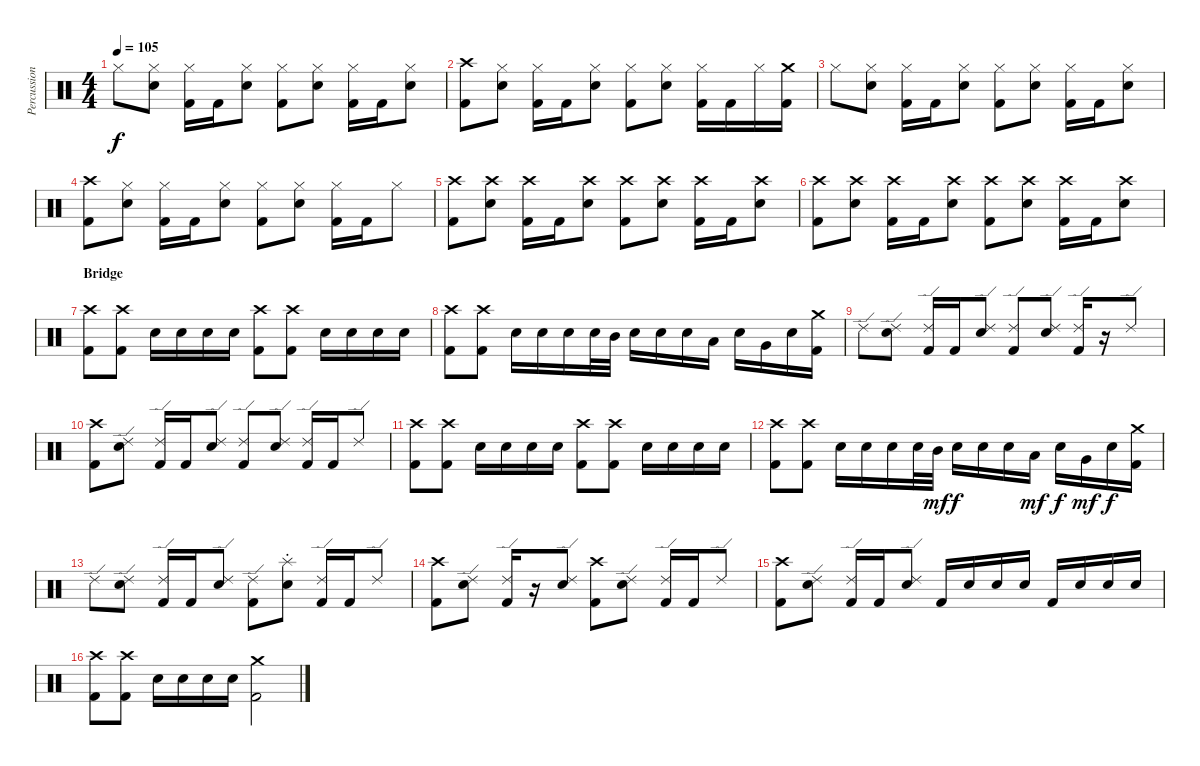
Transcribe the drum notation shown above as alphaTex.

\track ("Percussion" "Percussion") {instrument percussion}
\staff {score}
\articulation defaults
\ts (4 4)
\tempo 105
\clef neutral
\ks c "Hi-Hat (closed)".8{dy f}
("Hi-Hat (closed)" "Electric Snare (hit)").8 ("Hi-Hat (closed)" "Kick (hit) 2").16 "Kick (hit) 2".16 ("Hi-Hat (closed)" "Electric Snare (hit)").8 ("Hi-Hat (closed)" "Kick (hit) 2").8 ("Hi-Hat (closed)" "Electric Snare (hit)").8 ("Hi-Hat (closed)" "Kick (hit) 2").16 "Kick (hit) 2".16 ("Hi-Hat (closed)" "Electric Snare (hit)").8 |
("Crash high (hit)" "Kick (hit) 2").8 ("Hi-Hat (closed)" "Electric Snare (hit)").8 ("Hi-Hat (closed)" "Kick (hit) 2").16 "Kick (hit) 2".16 ("Hi-Hat (closed)" "Electric Snare (hit)").8 ("Hi-Hat (closed)" "Kick (hit) 2").8 ("Hi-Hat (closed)" "Electric Snare (hit)").8 ("Hi-Hat (closed)" "Kick (hit) 2").16 "Kick (hit) 2".16 "Hi-Hat (closed)".16 ("Crash medium (hit)" "Kick (hit) 2").16 |
"Hi-Hat (closed)".8 ("Hi-Hat (closed)" "Electric Snare (hit)").8 ("Hi-Hat (closed)" "Kick (hit) 2").16 "Kick (hit) 2".16 ("Hi-Hat (closed)" "Electric Snare (hit)").8 ("Hi-Hat (closed)" "Kick (hit) 2").8 ("Hi-Hat (closed)" "Electric Snare (hit)").8 ("Hi-Hat (closed)" "Kick (hit) 2").16 "Kick (hit) 2".16 ("Hi-Hat (closed)" "Electric Snare (hit)").8 |
("Crash high (hit)" "Kick (hit) 2").8 ("Hi-Hat (closed)" "Electric Snare (hit)").8 ("Hi-Hat (closed)" "Kick (hit) 2").16 "Kick (hit) 2".16 ("Hi-Hat (closed)" "Electric Snare (hit)").8 ("Hi-Hat (closed)" "Kick (hit) 2").8 ("Hi-Hat (closed)" "Electric Snare (hit)").8 ("Hi-Hat (closed)" "Kick (hit) 2").16 "Kick (hit) 2".16 "Hi-Hat (closed)".8 |
("Crash high (hit)" "Kick (hit) 2").8 ("Crash high (hit)" "Electric Snare (hit)").8 ("Crash high (hit)" "Kick (hit) 2").16 "Kick (hit) 2".16 ("Crash high (hit)" "Electric Snare (hit)").8 ("Crash high (hit)" "Kick (hit) 2").8 ("Crash high (hit)" "Electric Snare (hit)").8 ("Crash high (hit)" "Kick (hit) 2").16 "Kick (hit) 2".16 ("Crash high (hit)" "Electric Snare (hit)").8 |
("Crash high (hit)" "Kick (hit) 2").8 ("Crash high (hit)" "Electric Snare (hit)").8 ("Crash high (hit)" "Kick (hit) 2").16 "Kick (hit) 2".16 ("Crash high (hit)" "Electric Snare (hit)").8 ("Crash high (hit)" "Kick (hit) 2").8 ("Crash high (hit)" "Electric Snare (hit)").8 ("Crash high (hit)" "Kick (hit) 2").16 "Kick (hit) 2".16 ("Crash high (hit)" "Electric Snare (hit)").8 |
\section ("" "Bridge")
("Crash high (hit)" "Kick (hit) 2").8 ("Crash high (hit)" "Kick (hit) 2").8 "Electric Snare (hit)".16 "Electric Snare (hit)".16 "Electric Snare (hit)".16 "Electric Snare (hit)".16 ("Crash high (hit)" "Kick (hit) 2").8 ("Crash high (hit)" "Kick (hit) 2").8 "Electric Snare (hit)".16 "Electric Snare (hit)".16 "Electric Snare (hit)".16 "Electric Snare (hit)".16 |
("Crash high (hit)" "Kick (hit) 2").8 ("Crash high (hit)" "Kick (hit) 2").8 "Electric Snare (hit)".16 "Electric Snare (hit)".16 "Electric Snare (hit)".16 "Electric Snare (hit)".32 "Mid Tom (hit)".32 "Electric Snare (hit)".16 "Electric Snare (hit)".16 "Electric Snare (hit)".16 "Low Tom (hit)".16 "Electric Snare (hit)".16 "Very Low Tom (hit)".16 "Electric Snare (hit)".16 ("Crash medium (hit)" "Kick (hit) 2").16 |
"Ride (edge) 2".8 ("Ride (edge) 2" "Electric Snare (hit)").8 ("Ride (edge) 2" "Kick (hit) 2").16 "Kick (hit) 2".16 ("Ride (edge) 2" "Electric Snare (hit)").8 ("Ride (edge) 2" "Kick (hit) 2").8 ("Ride (edge) 2" "Electric Snare (hit)").8 ("Ride (edge) 2" "Kick (hit) 2").16 r.16 "Ride (edge) 2".8 |
("Crash high (hit)" "Kick (hit) 2").8 ("Ride (edge) 2" "Electric Snare (hit)").8 ("Ride (edge) 2" "Kick (hit) 2").16 "Kick (hit) 2".16 ("Ride (edge) 2" "Electric Snare (hit)").8 ("Ride (edge) 2" "Kick (hit) 2").8 ("Ride (edge) 2" "Electric Snare (hit)").8 ("Ride (edge) 2" "Kick (hit) 2").16 "Kick (hit) 2".16 "Ride (edge) 2".8 |
("Crash high (hit)" "Kick (hit) 2").8 ("Crash high (hit)" "Kick (hit) 2").8 "Electric Snare (hit)".16 "Electric Snare (hit)".16 "Electric Snare (hit)".16 "Electric Snare (hit)".16 ("Crash high (hit)" "Kick (hit) 2").8 ("Crash high (hit)" "Kick (hit) 2").8 "Electric Snare (hit)".16 "Electric Snare (hit)".16 "Electric Snare (hit)".16 "Electric Snare (hit)".16 |
("Crash high (hit)" "Kick (hit) 2").8 ("Crash high (hit)" "Kick (hit) 2").8 "Electric Snare (hit)".16 "Electric Snare (hit)".16 "Electric Snare (hit)".16 "Electric Snare (hit)".32 "Mid Tom (hit)".32{dy mf} "Electric Snare (hit)".16{dy f} "Electric Snare (hit)".16 "Electric Snare (hit)".16 "Low Tom (hit)".16{dy mf} "Electric Snare (hit)".16{dy f} "Very Low Tom (hit)".16{dy mf} "Electric Snare (hit)".16{dy f} ("Crash medium (hit)" "Kick (hit) 2").16 |
"Ride (edge) 2".8 ("Ride (edge) 2" "Electric Snare (hit)").8 ("Ride (edge) 2" "Kick (hit) 2").16 "Kick (hit) 2".16 ("Ride (edge) 2" "Electric Snare (hit)").8 ("Ride (edge) 2" "Kick (hit) 2").8 ("Splash (choke)" "Electric Snare (hit)").8 ("Ride (edge) 2" "Kick (hit) 2").16 "Kick (hit) 2".16 "Ride (edge) 2".8 |
("Crash high (hit)" "Kick (hit) 2").8 ("Ride (edge) 2" "Electric Snare (hit)").8 ("Ride (edge) 2" "Kick (hit) 2").16 r.16 ("Ride (edge) 2" "Electric Snare (hit)").8 ("Crash high (hit)" "Kick (hit) 2").8 ("Ride (edge) 2" "Electric Snare (hit)").8 ("Ride (edge) 2" "Kick (hit) 2").16 "Kick (hit) 2".16 "Ride (edge) 2".8 |
("Crash high (hit)" "Kick (hit) 2").8 ("Ride (edge) 2" "Electric Snare (hit)").8 ("Ride (edge) 2" "Kick (hit) 2").16 "Kick (hit) 2".16 ("Ride (edge) 2" "Electric Snare (hit)").8 "Kick (hit) 2".16 "Electric Snare (hit)".16 "Electric Snare (hit)".16 "Electric Snare (hit)".16 "Kick (hit) 2".16 "Electric Snare (hit)".16 "Electric Snare (hit)".16 "Electric Snare (hit)".16 |
("Crash high (hit)" "Kick (hit) 2").8 ("Crash high (hit)" "Kick (hit) 2").8 "Electric Snare (hit)".16 "Electric Snare (hit)".16 "Electric Snare (hit)".16 "Electric Snare (hit)".16 ("Crash medium (hit)" "Kick (hit) 2").2
